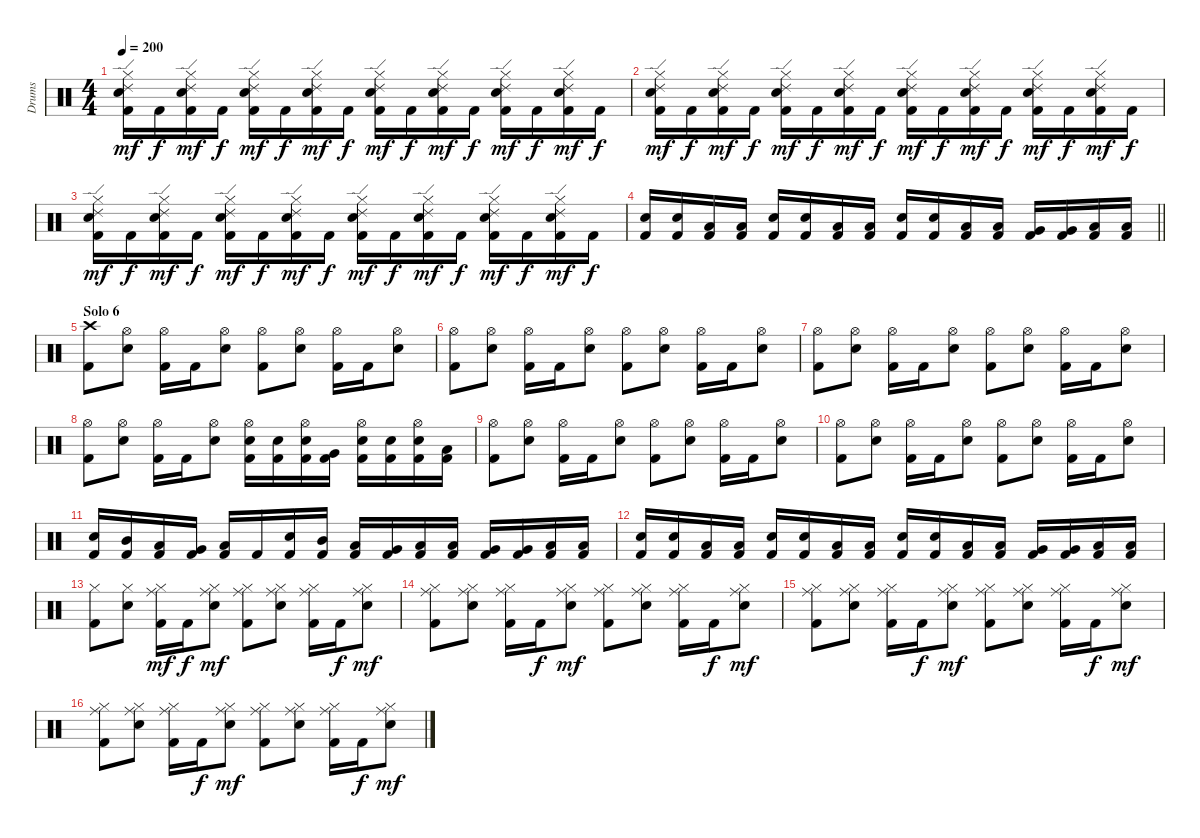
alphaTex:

\track ("Drums" "Drums") {instrument percussion}
\staff {score}
\articulation defaults
\ts (4 4)
\tempo 200
\clef neutral
\ks c
("Hi-Hat (closed)" "Ride (edge) 2" "Snare (hit) 2" "Kick (hit) 2").16{dy mf} "Kick (hit) 2".16{dy f} ("Hi-Hat (closed)" "Ride (edge) 2" "Snare (hit) 2" "Kick (hit) 2").16{dy mf} "Kick (hit) 2".16{dy f} ("Hi-Hat (closed)" "Ride (edge) 2" "Snare (hit) 2" "Kick (hit) 2").16{dy mf} "Kick (hit) 2".16{dy f} ("Hi-Hat (closed)" "Ride (edge) 2" "Snare (hit) 2" "Kick (hit) 2").16{dy mf} "Kick (hit) 2".16{dy f} ("Hi-Hat (closed)" "Ride (edge) 2" "Snare (hit) 2" "Kick (hit) 2").16{dy mf} "Kick (hit) 2".16{dy f} ("Hi-Hat (closed)" "Ride (edge) 2" "Snare (hit) 2" "Kick (hit) 2").16{dy mf} "Kick (hit) 2".16{dy f} ("Hi-Hat (closed)" "Ride (edge) 2" "Snare (hit) 2" "Kick (hit) 2").16{dy mf} "Kick (hit) 2".16{dy f} ("Hi-Hat (closed)" "Ride (edge) 2" "Snare (hit) 2" "Kick (hit) 2").16{dy mf} "Kick (hit) 2".16{dy f} |
("Hi-Hat (closed)" "Ride (edge) 2" "Snare (hit) 2" "Kick (hit) 2").16{dy mf} "Kick (hit) 2".16{dy f} ("Hi-Hat (closed)" "Ride (edge) 2" "Snare (hit) 2" "Kick (hit) 2").16{dy mf} "Kick (hit) 2".16{dy f} ("Hi-Hat (closed)" "Ride (edge) 2" "Snare (hit) 2" "Kick (hit) 2").16{dy mf} "Kick (hit) 2".16{dy f} ("Hi-Hat (closed)" "Ride (edge) 2" "Snare (hit) 2" "Kick (hit) 2").16{dy mf} "Kick (hit) 2".16{dy f} ("Hi-Hat (closed)" "Ride (edge) 2" "Snare (hit) 2" "Kick (hit) 2").16{dy mf} "Kick (hit) 2".16{dy f} ("Hi-Hat (closed)" "Ride (edge) 2" "Snare (hit) 2" "Kick (hit) 2").16{dy mf} "Kick (hit) 2".16{dy f} ("Hi-Hat (closed)" "Ride (edge) 2" "Snare (hit) 2" "Kick (hit) 2").16{dy mf} "Kick (hit) 2".16{dy f} ("Hi-Hat (closed)" "Ride (edge) 2" "Snare (hit) 2" "Kick (hit) 2").16{dy mf} "Kick (hit) 2".16{dy f} |
("Hi-Hat (closed)" "Ride (edge) 2" "Snare (hit) 2" "Kick (hit) 2").16{dy mf} "Kick (hit) 2".16{dy f} ("Hi-Hat (closed)" "Ride (edge) 2" "Snare (hit) 2" "Kick (hit) 2").16{dy mf} "Kick (hit) 2".16{dy f} ("Hi-Hat (closed)" "Ride (edge) 2" "Snare (hit) 2" "Kick (hit) 2").16{dy mf} "Kick (hit) 2".16{dy f} ("Hi-Hat (closed)" "Ride (edge) 2" "Snare (hit) 2" "Kick (hit) 2").16{dy mf} "Kick (hit) 2".16{dy f} ("Hi-Hat (closed)" "Ride (edge) 2" "Snare (hit) 2" "Kick (hit) 2").16{dy mf} "Kick (hit) 2".16{dy f} ("Hi-Hat (closed)" "Ride (edge) 2" "Snare (hit) 2" "Kick (hit) 2").16{dy mf} "Kick (hit) 2".16{dy f} ("Hi-Hat (closed)" "Ride (edge) 2" "Snare (hit) 2" "Kick (hit) 2").16{dy mf} "Kick (hit) 2".16{dy f} ("Hi-Hat (closed)" "Ride (edge) 2" "Snare (hit) 2" "Kick (hit) 2").16{dy mf} "Kick (hit) 2".16{dy f} |
\barLineRight lightlight
("Snare (hit) 2" "Kick (hit) 2").16 ("Snare (hit) 2" "Kick (hit) 2").16 ("Low Floor Tom (hit)" "Kick (hit) 2").16 ("Low Floor Tom (hit)" "Kick (hit) 2").16 ("Snare (hit) 2" "Kick (hit) 2").16 ("Snare (hit) 2" "Kick (hit) 2").16 ("Low Floor Tom (hit)" "Kick (hit) 2").16 ("Low Floor Tom (hit)" "Kick (hit) 2").16 ("Snare (hit) 2" "Kick (hit) 2").16 ("Snare (hit) 2" "Kick (hit) 2").16 ("Low Tom (hit)" "Kick (hit) 2").16 ("Low Tom (hit)" "Kick (hit) 2").16 ("Very Low Tom (hit)" "Kick (hit) 2").16 ("Very Low Tom (hit)" "Kick (hit) 2").16 ("Low Floor Tom (hit)" "Kick (hit) 2").16 ("Low Floor Tom (hit)" "Kick (hit) 2").16 |
\section ("" "Solo 6")
("Crash high (hit)" "Kick (hit) 2").8 ("Hi-Hat (open)" "Snare (hit) 2").8 ("Hi-Hat (open)" "Kick (hit) 2").16 "Kick (hit) 2".16 ("Hi-Hat (open)" "Snare (hit) 2").8 ("Hi-Hat (open)" "Kick (hit) 2").8 ("Hi-Hat (open)" "Snare (hit) 2").8 ("Hi-Hat (open)" "Kick (hit) 2").16 "Kick (hit) 2".16 ("Hi-Hat (open)" "Snare (hit) 2").8 |
("Hi-Hat (open)" "Kick (hit) 2").8 ("Hi-Hat (open)" "Snare (hit) 2").8 ("Hi-Hat (open)" "Kick (hit) 2").16 "Kick (hit) 2".16 ("Hi-Hat (open)" "Snare (hit) 2").8 ("Hi-Hat (open)" "Kick (hit) 2").8 ("Hi-Hat (open)" "Snare (hit) 2").8 ("Hi-Hat (open)" "Kick (hit) 2").16 "Kick (hit) 2".16 ("Hi-Hat (open)" "Snare (hit) 2").8 |
("Hi-Hat (open)" "Kick (hit) 2").8 ("Hi-Hat (open)" "Snare (hit) 2").8 ("Hi-Hat (open)" "Kick (hit) 2").16 "Kick (hit) 2".16 ("Hi-Hat (open)" "Snare (hit) 2").8 ("Hi-Hat (open)" "Kick (hit) 2").8 ("Hi-Hat (open)" "Snare (hit) 2").8 ("Hi-Hat (open)" "Kick (hit) 2").16 "Kick (hit) 2".16 ("Hi-Hat (open)" "Snare (hit) 2").8 |
("Hi-Hat (open)" "Kick (hit) 2").8 ("Hi-Hat (open)" "Snare (hit) 2").8 ("Hi-Hat (open)" "Kick (hit) 2").16 "Kick (hit) 2".16 ("Hi-Hat (open)" "Snare (hit) 2").8 ("Hi-Hat (open)" "Snare (hit) 2" "Kick (hit) 2").16 ("Snare (hit) 2" "Kick (hit) 2").16 ("Hi-Hat (open)" "Snare (hit) 2" "Kick (hit) 2").16 ("Very Low Tom (hit)" "Kick (hit) 2").16 ("Hi-Hat (open)" "Snare (hit) 2" "Kick (hit) 2").16 ("Snare (hit) 2" "Kick (hit) 2").16 ("Hi-Hat (open)" "Snare (hit) 2" "Kick (hit) 2").16 ("Low Tom (hit)" "Kick (hit) 2").16 |
("Hi-Hat (open)" "Kick (hit) 2").8 ("Hi-Hat (open)" "Snare (hit) 2").8 ("Hi-Hat (open)" "Kick (hit) 2").16 "Kick (hit) 2".16 ("Hi-Hat (open)" "Snare (hit) 2").8 ("Hi-Hat (open)" "Kick (hit) 2").8 ("Hi-Hat (open)" "Snare (hit) 2").8 ("Hi-Hat (open)" "Kick (hit) 2").16 "Kick (hit) 2".16 ("Hi-Hat (open)" "Snare (hit) 2").8 |
("Hi-Hat (open)" "Kick (hit) 2").8 ("Hi-Hat (open)" "Snare (hit) 2").8 ("Hi-Hat (open)" "Kick (hit) 2").16 "Kick (hit) 2".16 ("Hi-Hat (open)" "Snare (hit) 2").8 ("Hi-Hat (open)" "Kick (hit) 2").8 ("Hi-Hat (open)" "Snare (hit) 2").8 ("Hi-Hat (open)" "Kick (hit) 2").16 "Kick (hit) 2".16 ("Hi-Hat (open)" "Snare (hit) 2").8 |
("Snare (hit) 2" "Kick (hit) 2").16 ("Mid Tom (hit)" "Kick (hit) 2").16 ("Low Tom (hit)" "Kick (hit) 2").16 ("Very Low Tom (hit)" "Kick (hit) 2").16 ("Low Floor Tom (hit)" "Kick (hit) 2").16 "Kick (hit) 2".16 ("Snare (hit) 2" "Kick (hit) 2").16 ("Mid Tom (hit)" "Kick (hit) 2").16 ("Low Tom (hit)" "Kick (hit) 2").16 ("Very Low Tom (hit)" "Kick (hit) 2").16 ("Low Tom (hit)" "Kick (hit) 2").16 ("Low Tom (hit)" "Kick (hit) 2").16 ("Very Low Tom (hit)" "Kick (hit) 2").16 ("Very Low Tom (hit)" "Kick (hit) 2").16 ("Low Floor Tom (hit)" "Kick (hit) 2").16 ("Low Floor Tom (hit)" "Kick (hit) 2").16 |
("Snare (hit) 2" "Kick (hit) 2").16 ("Snare (hit) 2" "Kick (hit) 2").16 ("Low Floor Tom (hit)" "Kick (hit) 2").16 ("Low Floor Tom (hit)" "Kick (hit) 2").16 ("Snare (hit) 2" "Kick (hit) 2").16 ("Snare (hit) 2" "Kick (hit) 2").16 ("Low Floor Tom (hit)" "Kick (hit) 2").16 ("Low Floor Tom (hit)" "Kick (hit) 2").16 ("Snare (hit) 2" "Kick (hit) 2").16 ("Snare (hit) 2" "Kick (hit) 2").16 ("Low Tom (hit)" "Kick (hit) 2").16 ("Low Tom (hit)" "Kick (hit) 2").16 ("Very Low Tom (hit)" "Kick (hit) 2").16 ("Very Low Tom (hit)" "Kick (hit) 2").16 ("Low Floor Tom (hit)" "Kick (hit) 2").16 ("Low Floor Tom (hit)" "Kick (hit) 2").16 |
("Hi-Hat (closed)" "Kick (hit) 2").8 ("Hi-Hat (closed)" "Snare (hit) 2").8 ("Hi-Hat (closed)" "Ride (middle)" "Kick (hit) 2").16{dy mf} "Kick (hit) 2".16{dy f} ("Hi-Hat (closed)" "Ride (middle)" "Snare (hit) 2").8{dy mf} ("Hi-Hat (closed)" "Ride (middle)" "Kick (hit) 2").8 ("Hi-Hat (closed)" "Ride (middle)" "Snare (hit) 2").8 ("Hi-Hat (closed)" "Ride (middle)" "Kick (hit) 2").16 "Kick (hit) 2".16{dy f} ("Hi-Hat (closed)" "Ride (middle)" "Snare (hit) 2").8{dy mf} |
("Hi-Hat (closed)" "Ride (middle)" "Kick (hit) 2").8 ("Hi-Hat (closed)" "Ride (middle)" "Snare (hit) 2").8 ("Hi-Hat (closed)" "Ride (middle)" "Kick (hit) 2").16 "Kick (hit) 2".16{dy f} ("Hi-Hat (closed)" "Ride (middle)" "Snare (hit) 2").8{dy mf} ("Hi-Hat (closed)" "Ride (middle)" "Kick (hit) 2").8 ("Hi-Hat (closed)" "Ride (middle)" "Snare (hit) 2").8 ("Hi-Hat (closed)" "Ride (middle)" "Kick (hit) 2").16 "Kick (hit) 2".16{dy f} ("Hi-Hat (closed)" "Ride (middle)" "Snare (hit) 2").8{dy mf} |
("Hi-Hat (closed)" "Ride (middle)" "Kick (hit) 2").8 ("Hi-Hat (closed)" "Ride (middle)" "Snare (hit) 2").8 ("Hi-Hat (closed)" "Ride (middle)" "Kick (hit) 2").16 "Kick (hit) 2".16{dy f} ("Hi-Hat (closed)" "Ride (middle)" "Snare (hit) 2").8{dy mf} ("Hi-Hat (closed)" "Ride (middle)" "Kick (hit) 2").8 ("Hi-Hat (closed)" "Ride (middle)" "Snare (hit) 2").8 ("Hi-Hat (closed)" "Ride (middle)" "Kick (hit) 2").16 "Kick (hit) 2".16{dy f} ("Hi-Hat (closed)" "Ride (middle)" "Snare (hit) 2").8{dy mf} |
("Hi-Hat (closed)" "Ride (middle)" "Kick (hit) 2").8 ("Hi-Hat (closed)" "Ride (middle)" "Snare (hit) 2").8 ("Hi-Hat (closed)" "Ride (middle)" "Kick (hit) 2").16 "Kick (hit) 2".16{dy f} ("Hi-Hat (closed)" "Ride (middle)" "Snare (hit) 2").8{dy mf} ("Hi-Hat (closed)" "Ride (middle)" "Kick (hit) 2").8 ("Hi-Hat (closed)" "Ride (middle)" "Snare (hit) 2").8 ("Hi-Hat (closed)" "Ride (middle)" "Kick (hit) 2").16 "Kick (hit) 2".16{dy f} ("Hi-Hat (closed)" "Ride (middle)" "Snare (hit) 2").8{dy mf}
